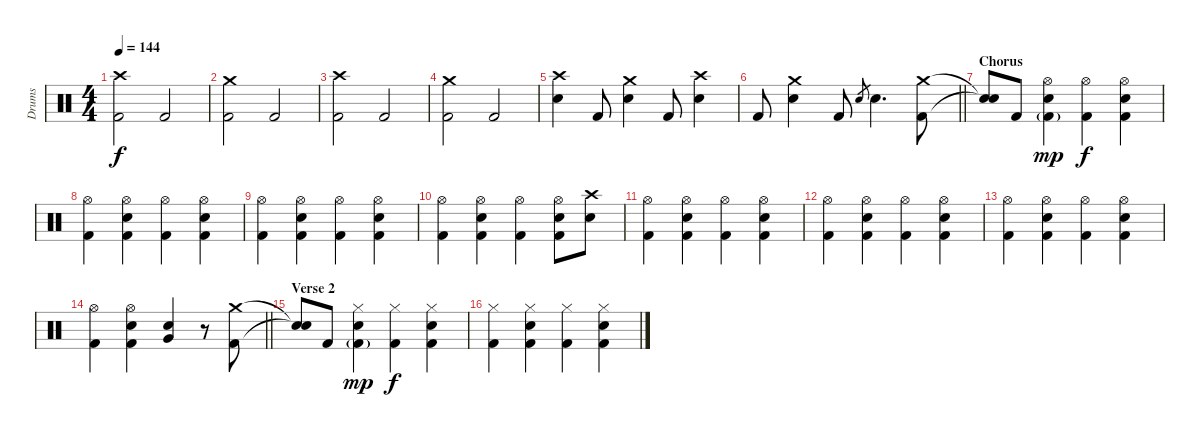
\track ("Drums" "Drums") {instrument percussion}
\staff {score}
\articulation defaults
\ts (4 4)
\tempo 144
\clef neutral
\ks c
("Crash high (hit)" "Kick (hit) 2").2{dy f} "Kick (hit) 2".2 |
("Crash medium (hit)" "Kick (hit) 2").2 "Kick (hit) 2".2 |
("Crash high (hit)" "Kick (hit) 2").2 "Kick (hit) 2".2 |
("Crash medium (hit)" "Kick (hit) 2").2 "Kick (hit) 2".2 |
("Crash high (hit)" "Electric Snare (hit)").4 "Kick (hit) 2".8 ("Crash medium (hit)" "Electric Snare (hit)").4 "Kick (hit) 2".8 ("Crash high (hit)" "Electric Snare (hit)").4 |
\barLineRight lightlight "Kick (hit) 2".8
("Crash medium (hit)" "Electric Snare (hit)").4 "Kick (hit) 2".8 "Electric Snare (hit)".8{gr} "Electric Snare (hit)".4{d} ("Crash medium (hit)" "Kick (hit) 2").8 |
\section ("" "Chorus")
("Snare (hit)"{t} "Snare (hit)"{t}).8 "Kick (hit) 2".8 ("Hi-Hat (open)" "Electric Snare (hit)" "Kick (hit) 2"{g}).4{dy mp} ("Hi-Hat (open)" "Kick (hit) 2").4{dy f} ("Hi-Hat (open)" "Electric Snare (hit)" "Kick (hit) 2").4 |
("Hi-Hat (open)" "Kick (hit) 2").4 ("Hi-Hat (open)" "Electric Snare (hit)" "Kick (hit) 2").4 ("Hi-Hat (open)" "Kick (hit) 2").4 ("Hi-Hat (open)" "Electric Snare (hit)" "Kick (hit) 2").4 |
("Hi-Hat (open)" "Kick (hit) 2").4 ("Hi-Hat (open)" "Electric Snare (hit)" "Kick (hit) 2").4 ("Hi-Hat (open)" "Kick (hit) 2").4 ("Hi-Hat (open)" "Electric Snare (hit)" "Kick (hit) 2").4 |
("Hi-Hat (open)" "Kick (hit) 2").4 ("Hi-Hat (open)" "Electric Snare (hit)" "Kick (hit) 2").4 ("Hi-Hat (open)" "Kick (hit) 2").4 ("Hi-Hat (open)" "Electric Snare (hit)" "Kick (hit) 2").8 ("Crash high (hit)" "Electric Snare (hit)").8 |
("Hi-Hat (open)" "Kick (hit) 2").4 ("Hi-Hat (open)" "Electric Snare (hit)" "Kick (hit) 2").4 ("Hi-Hat (open)" "Kick (hit) 2").4 ("Hi-Hat (open)" "Electric Snare (hit)" "Kick (hit) 2").4 |
("Hi-Hat (open)" "Kick (hit) 2").4 ("Hi-Hat (open)" "Electric Snare (hit)" "Kick (hit) 2").4 ("Hi-Hat (open)" "Kick (hit) 2").4 ("Hi-Hat (open)" "Electric Snare (hit)" "Kick (hit) 2").4 |
("Hi-Hat (open)" "Kick (hit) 2").4 ("Hi-Hat (open)" "Electric Snare (hit)" "Kick (hit) 2").4 ("Hi-Hat (open)" "Kick (hit) 2").4 ("Hi-Hat (open)" "Electric Snare (hit)" "Kick (hit) 2").4 |
\barLineRight lightlight
("Hi-Hat (open)" "Kick (hit) 2").4 ("Hi-Hat (open)" "Electric Snare (hit)" "Kick (hit) 2").4 ("Electric Snare (hit)" "Very Low Tom (hit)").4 r.8 ("Crash medium (hit)" "Kick (hit) 2").8 |
\section ("" "Verse 2")
("Snare (hit)"{t} "Snare (hit)"{t}).8 "Kick (hit) 2".8 ("Hi-Hat (closed)" "Electric Snare (hit)" "Kick (hit) 2"{g}).4{dy mp} ("Hi-Hat (closed)" "Kick (hit) 2").4{dy f} ("Hi-Hat (closed)" "Electric Snare (hit)" "Kick (hit) 2").4 |
("Hi-Hat (closed)" "Kick (hit) 2").4 ("Hi-Hat (closed)" "Electric Snare (hit)" "Kick (hit) 2").4 ("Hi-Hat (closed)" "Kick (hit) 2").4 ("Hi-Hat (closed)" "Electric Snare (hit)" "Kick (hit) 2").4
